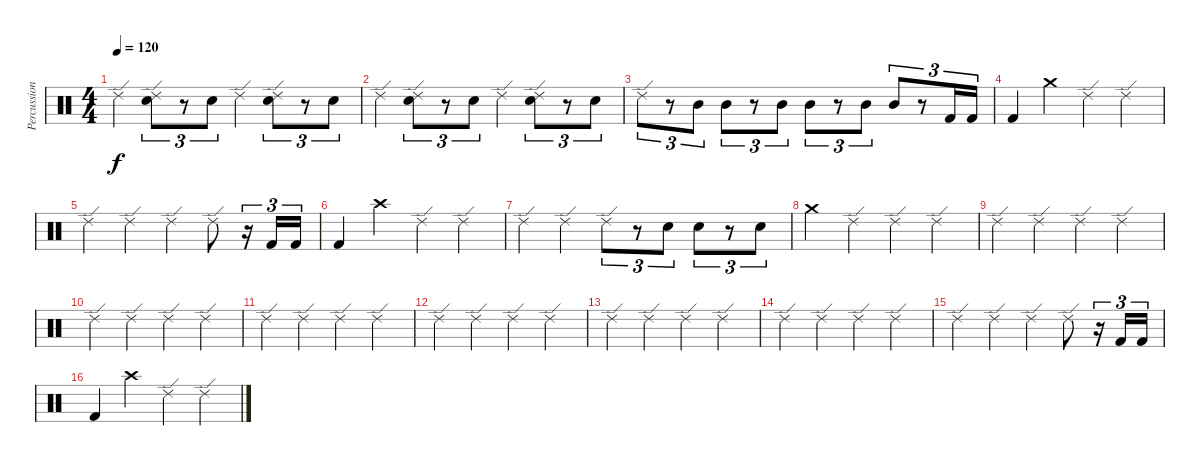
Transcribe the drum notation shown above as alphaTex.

\track ("Percussion" "Percussion") {instrument percussion}
\staff {score}
\articulation defaults
\ts (4 4)
\tempo 120
\clef neutral
\ks c "Ride (edge) 2".4{dy f}
("Electric Snare (hit)" "Ride (edge) 2").8{tu (3 2)} r.8{tu (3 2)} "Electric Snare (hit)".8{tu (3 2)} "Ride (edge) 2".4 ("Electric Snare (hit)" "Ride (edge) 2").8{tu (3 2)} r.8{tu (3 2)} "Electric Snare (hit)".8{tu (3 2)} |
"Ride (edge) 2".4 ("Electric Snare (hit)" "Ride (edge) 2").8{tu (3 2)} r.8{tu (3 2)} "Electric Snare (hit)".8{tu (3 2)} "Ride (edge) 2".4 ("Electric Snare (hit)" "Ride (edge) 2").8{tu (3 2)} r.8{tu (3 2)} "Electric Snare (hit)".8{tu (3 2)} |
"Ride (edge) 2".8{tu (3 2)} r.8{tu (3 2)} "Mid Tom (hit)".8{tu (3 2)} "Mid Tom (hit)".8{tu (3 2)} r.8{tu (3 2)} "Mid Tom (hit)".8{tu (3 2)} "Mid Tom (hit)".8{tu (3 2)} r.8{tu (3 2)} "Mid Tom (hit)".8{tu (3 2)} "Mid Tom (hit)".8{tu (3 2)} r.8{tu (3 2)} "Kick (hit) 2".16{tu (3 2)} "Kick (hit) 2".16{tu (3 2)} |
"Kick (hit) 2".4 "Crash medium (hit)".4 "Ride (edge) 2".4 "Ride (edge) 2".4 |
"Ride (edge) 2".4 "Ride (edge) 2".4 "Ride (edge) 2".4 "Ride (edge) 2".8 r.16{tu (3 2)} "Kick (hit) 2".16{tu (3 2)} "Kick (hit) 2".16{tu (3 2)} |
"Kick (hit) 2".4 "Crash high (hit)".4 "Ride (edge) 2".4 "Ride (edge) 2".4 |
"Ride (edge) 2".4 "Ride (edge) 2".4 "Ride (edge) 2".8{tu (3 2)} r.8{tu (3 2)} "Electric Snare (hit)".8{tu (3 2)} "Electric Snare (hit)".8{tu (3 2)} r.8{tu (3 2)} "Electric Snare (hit)".8{tu (3 2)} |
"Crash medium (hit)".4 "Ride (edge) 2".4 "Ride (edge) 2".4 "Ride (edge) 2".4 |
"Ride (edge) 2".4 "Ride (edge) 2".4 "Ride (edge) 2".4 "Ride (edge) 2".4 |
"Ride (edge) 2".4 "Ride (edge) 2".4 "Ride (edge) 2".4 "Ride (edge) 2".4 |
"Ride (edge) 2".4 "Ride (edge) 2".4 "Ride (edge) 2".4 "Ride (edge) 2".4 |
"Ride (edge) 2".4 "Ride (edge) 2".4 "Ride (edge) 2".4 "Ride (edge) 2".4 |
"Ride (edge) 2".4 "Ride (edge) 2".4 "Ride (edge) 2".4 "Ride (edge) 2".4 |
"Ride (edge) 2".4 "Ride (edge) 2".4 "Ride (edge) 2".4 "Ride (edge) 2".4 |
"Ride (edge) 2".4 "Ride (edge) 2".4 "Ride (edge) 2".4 "Ride (edge) 2".8 r.16{tu (3 2)} "Kick (hit) 2".16{tu (3 2)} "Kick (hit) 2".16{tu (3 2)} |
"Kick (hit) 2".4 "Crash high (hit)".4 "Ride (edge) 2".4 "Ride (edge) 2".4
